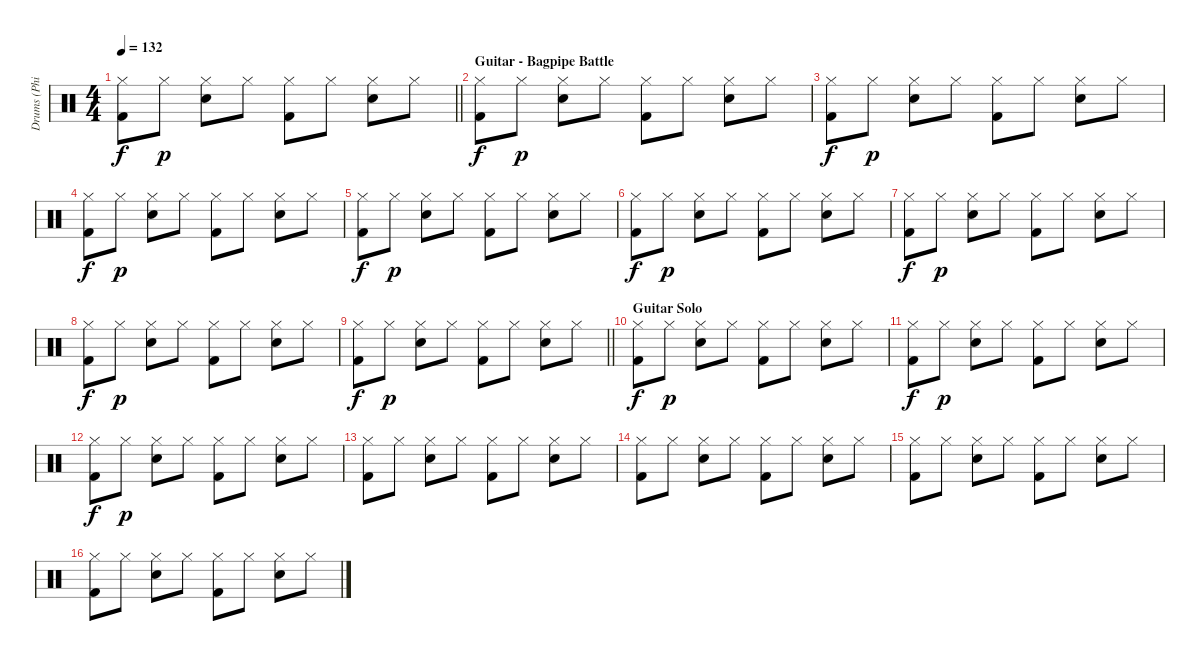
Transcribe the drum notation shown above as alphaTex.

\track ("Drums (Phil Rudd)" "Drums (Phi") {instrument percussion}
\staff {score}
\articulation defaults
\ts (4 4)
\tempo 132
\clef neutral
\barLineRight lightlight
\ks c
("Hi-Hat (closed)" "Kick (hit) 2").8{dy f} "Hi-Hat (closed)".8{dy p} ("Hi-Hat (closed)" "Snare (hit) 2").8 "Hi-Hat (closed)".8 ("Hi-Hat (closed)" "Kick (hit) 2").8 "Hi-Hat (closed)".8 ("Hi-Hat (closed)" "Snare (hit) 2").8 "Hi-Hat (closed)".8 |
\section ("" "Guitar - Bagpipe Battle")
("Hi-Hat (closed)" "Kick (hit) 2").8{dy f} "Hi-Hat (closed)".8{dy p} ("Hi-Hat (closed)" "Snare (hit) 2").8 "Hi-Hat (closed)".8 ("Hi-Hat (closed)" "Kick (hit) 2").8 "Hi-Hat (closed)".8 ("Hi-Hat (closed)" "Snare (hit) 2").8 "Hi-Hat (closed)".8 |
("Hi-Hat (closed)" "Kick (hit) 2").8{dy f} "Hi-Hat (closed)".8{dy p} ("Hi-Hat (closed)" "Snare (hit) 2").8 "Hi-Hat (closed)".8 ("Hi-Hat (closed)" "Kick (hit) 2").8 "Hi-Hat (closed)".8 ("Hi-Hat (closed)" "Snare (hit) 2").8 "Hi-Hat (closed)".8 |
("Hi-Hat (closed)" "Kick (hit) 2").8{dy f} "Hi-Hat (closed)".8{dy p} ("Hi-Hat (closed)" "Snare (hit) 2").8 "Hi-Hat (closed)".8 ("Hi-Hat (closed)" "Kick (hit) 2").8 "Hi-Hat (closed)".8 ("Hi-Hat (closed)" "Snare (hit) 2").8 "Hi-Hat (closed)".8 |
("Hi-Hat (closed)" "Kick (hit) 2").8{dy f} "Hi-Hat (closed)".8{dy p} ("Hi-Hat (closed)" "Snare (hit) 2").8 "Hi-Hat (closed)".8 ("Hi-Hat (closed)" "Kick (hit) 2").8 "Hi-Hat (closed)".8 ("Hi-Hat (closed)" "Snare (hit) 2").8 "Hi-Hat (closed)".8 |
("Hi-Hat (closed)" "Kick (hit) 2").8{dy f} "Hi-Hat (closed)".8{dy p} ("Hi-Hat (closed)" "Snare (hit) 2").8 "Hi-Hat (closed)".8 ("Hi-Hat (closed)" "Kick (hit) 2").8 "Hi-Hat (closed)".8 ("Hi-Hat (closed)" "Snare (hit) 2").8 "Hi-Hat (closed)".8 |
("Hi-Hat (closed)" "Kick (hit) 2").8{dy f} "Hi-Hat (closed)".8{dy p} ("Hi-Hat (closed)" "Snare (hit) 2").8 "Hi-Hat (closed)".8 ("Hi-Hat (closed)" "Kick (hit) 2").8 "Hi-Hat (closed)".8 ("Hi-Hat (closed)" "Snare (hit) 2").8 "Hi-Hat (closed)".8 |
("Hi-Hat (closed)" "Kick (hit) 2").8{dy f} "Hi-Hat (closed)".8{dy p} ("Hi-Hat (closed)" "Snare (hit) 2").8 "Hi-Hat (closed)".8 ("Hi-Hat (closed)" "Kick (hit) 2").8 "Hi-Hat (closed)".8 ("Hi-Hat (closed)" "Snare (hit) 2").8 "Hi-Hat (closed)".8 |
\barLineRight lightlight
("Hi-Hat (closed)" "Kick (hit) 2").8{dy f} "Hi-Hat (closed)".8{dy p} ("Hi-Hat (closed)" "Snare (hit) 2").8 "Hi-Hat (closed)".8 ("Hi-Hat (closed)" "Kick (hit) 2").8 "Hi-Hat (closed)".8 ("Hi-Hat (closed)" "Snare (hit) 2").8 "Hi-Hat (closed)".8 |
\section ("" "Guitar Solo")
("Hi-Hat (closed)" "Kick (hit) 2").8{dy f} "Hi-Hat (closed)".8{dy p} ("Hi-Hat (closed)" "Snare (hit) 2").8 "Hi-Hat (closed)".8 ("Hi-Hat (closed)" "Kick (hit) 2").8 "Hi-Hat (closed)".8 ("Hi-Hat (closed)" "Snare (hit) 2").8 "Hi-Hat (closed)".8 |
("Hi-Hat (closed)" "Kick (hit) 2").8{dy f} "Hi-Hat (closed)".8{dy p} ("Hi-Hat (closed)" "Snare (hit) 2").8 "Hi-Hat (closed)".8 ("Hi-Hat (closed)" "Kick (hit) 2").8 "Hi-Hat (closed)".8 ("Hi-Hat (closed)" "Snare (hit) 2").8 "Hi-Hat (closed)".8 |
("Hi-Hat (closed)" "Kick (hit) 2").8{dy f} "Hi-Hat (closed)".8{dy p} ("Hi-Hat (closed)" "Snare (hit) 2").8 "Hi-Hat (closed)".8 ("Hi-Hat (closed)" "Kick (hit) 2").8 "Hi-Hat (closed)".8 ("Hi-Hat (closed)" "Snare (hit) 2").8 "Hi-Hat (closed)".8 |
("Hi-Hat (closed)" "Kick (hit) 2").8 "Hi-Hat (closed)".8 ("Hi-Hat (closed)" "Snare (hit) 2").8 "Hi-Hat (closed)".8 ("Hi-Hat (closed)" "Kick (hit) 2").8 "Hi-Hat (closed)".8 ("Hi-Hat (closed)" "Snare (hit) 2").8 "Hi-Hat (closed)".8 |
("Hi-Hat (closed)" "Kick (hit) 2").8 "Hi-Hat (closed)".8 ("Hi-Hat (closed)" "Snare (hit) 2").8 "Hi-Hat (closed)".8 ("Hi-Hat (closed)" "Kick (hit) 2").8 "Hi-Hat (closed)".8 ("Hi-Hat (closed)" "Snare (hit) 2").8 "Hi-Hat (closed)".8 |
("Hi-Hat (closed)" "Kick (hit) 2").8 "Hi-Hat (closed)".8 ("Hi-Hat (closed)" "Snare (hit) 2").8 "Hi-Hat (closed)".8 ("Hi-Hat (closed)" "Kick (hit) 2").8 "Hi-Hat (closed)".8 ("Hi-Hat (closed)" "Snare (hit) 2").8 "Hi-Hat (closed)".8 |
("Hi-Hat (closed)" "Kick (hit) 2").8 "Hi-Hat (closed)".8 ("Hi-Hat (closed)" "Snare (hit) 2").8 "Hi-Hat (closed)".8 ("Hi-Hat (closed)" "Kick (hit) 2").8 "Hi-Hat (closed)".8 ("Hi-Hat (closed)" "Snare (hit) 2").8 "Hi-Hat (closed)".8
